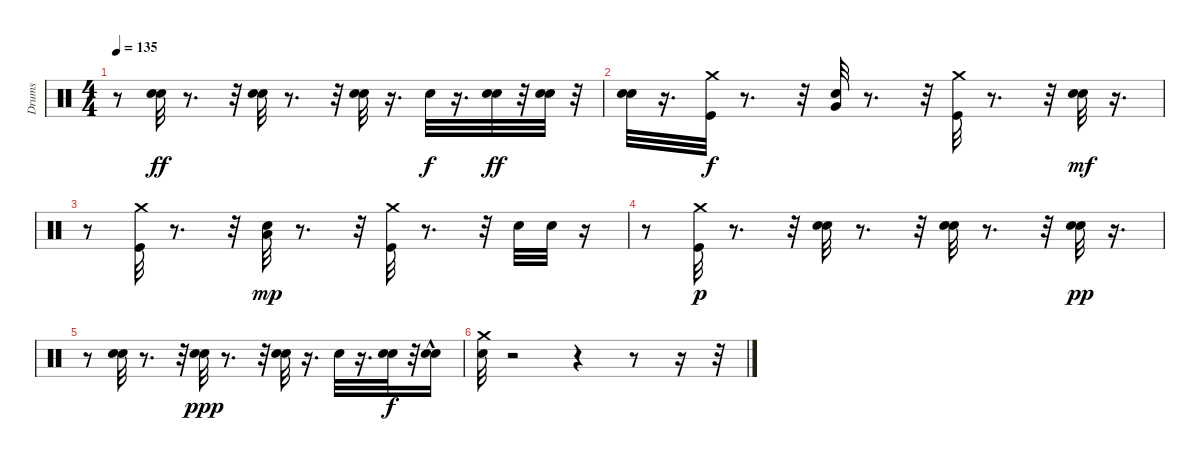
\track ("Drums" "Drums") {instrument percussion}
\staff {score}
\articulation defaults
\ts (4 4)
\tempo 135
\clef neutral
\ks c
r.8{dy ff} ("Snare (hit) 2" "Electric Snare (hit)").32 r.8{d} r.32 ("Electric Snare (hit)" "Snare (hit) 2").32 r.8{d} r.32 ("Electric Snare (hit)" "Snare (hit) 2").32 r.16{d} "Electric Snare (hit)".32{dy f} r.16{d} ("Electric Snare (hit)" "Snare (hit) 2").32{dy ff} r.32 ("Electric Snare (hit)" "Snare (hit) 2").32 r.32 |
("Snare (hit) 2" "Electric Snare (hit)").32 r.16{d} ("Kick (hit)" "Crash medium (hit)").32{dy f} r.8{d} r.32 ("Electric Snare (hit)" "Very Low Tom (hit)").32 r.8{d} r.32 ("Kick (hit)" "Crash medium (hit)").32 r.8{d} r.32 ("Snare (hit) 2" "Electric Snare (hit)").32{dy mf} r.16{d} |
r.8 ("Kick (hit)" "Crash medium (hit)").32 r.8{d} r.32 ("Electric Snare (hit)" "Low Tom (hit)").32{dy mp} r.8{d} r.32 ("Crash medium (hit)" "Kick (hit)").32 r.8{d} r.32 "Snare (hit) 2".32 "Electric Snare (hit)".32 r.16 |
r.8 ("Kick (hit)" "Crash medium (hit)").32{dy p} r.8{d} r.32 ("Snare (hit) 2" "Electric Snare (hit)").32 r.8{d} r.32 ("Snare (hit) 2" "Electric Snare (hit)").32 r.8{d} r.32 ("Electric Snare (hit)" "Snare (hit) 2").32{dy pp} r.16{d} |
r.8 ("Snare (hit) 2" "Electric Snare (hit)").32 r.8{d} r.32 ("Electric Snare (hit)" "Snare (hit) 2").32{dy ppp} r.8{d} r.32 ("Electric Snare (hit)" "Snare (hit) 2").32 r.16{d} "Electric Snare (hit)".32 r.16{d} ("Electric Snare (hit)" "Snare (hit) 2").32{dy f} r.32 ("Electric Snare (hit)" "Snare (hit) 2"{hac}).16 |
("Electric Snare (hit)" "Crash medium (hit)").32 r.2 r.4 r.8 r.16 r.32
